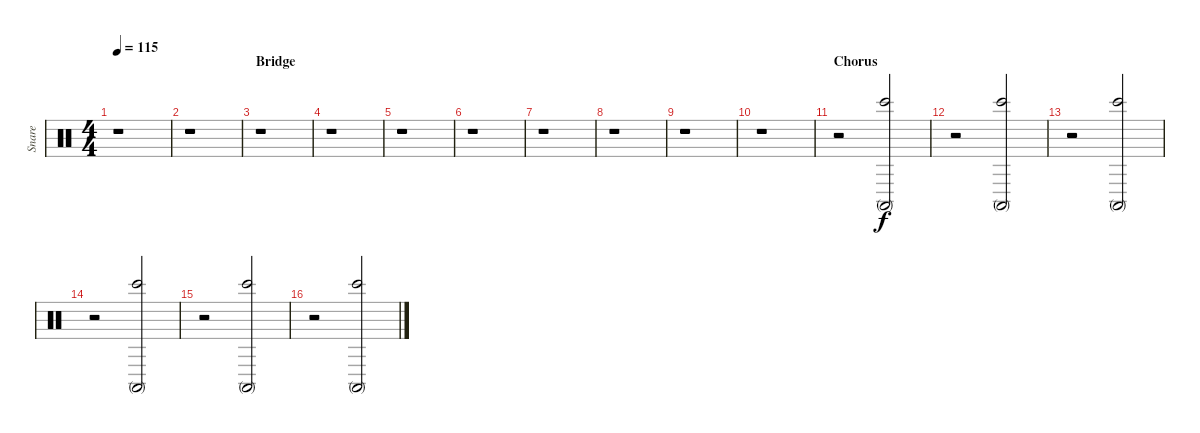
\track ("Snare" "Snare") {instrument percussion}
\staff {score}
\articulation defaults
\ts (4 4)
\tempo 115
\clef neutral
\ks c
r.1{dy f} |
r.1 |
\section ("" "Bridge")
r.1 |
r.1 |
r.1 |
r.1 |
r.1 |
r.1 |
r.1 |
r.1 |
\section ("" "Chorus")
r.2 ("Conga high (mute)" "Bongo High (hit)").2 |
r.2 ("Conga high (mute)" "Bongo High (hit)").2 |
r.2 ("Conga high (mute)" "Bongo High (hit)").2 |
r.2 ("Conga high (mute)" "Bongo High (hit)").2 |
r.2 ("Conga high (mute)" "Bongo High (hit)").2 |
r.2 ("Conga high (mute)" "Bongo High (hit)").2
